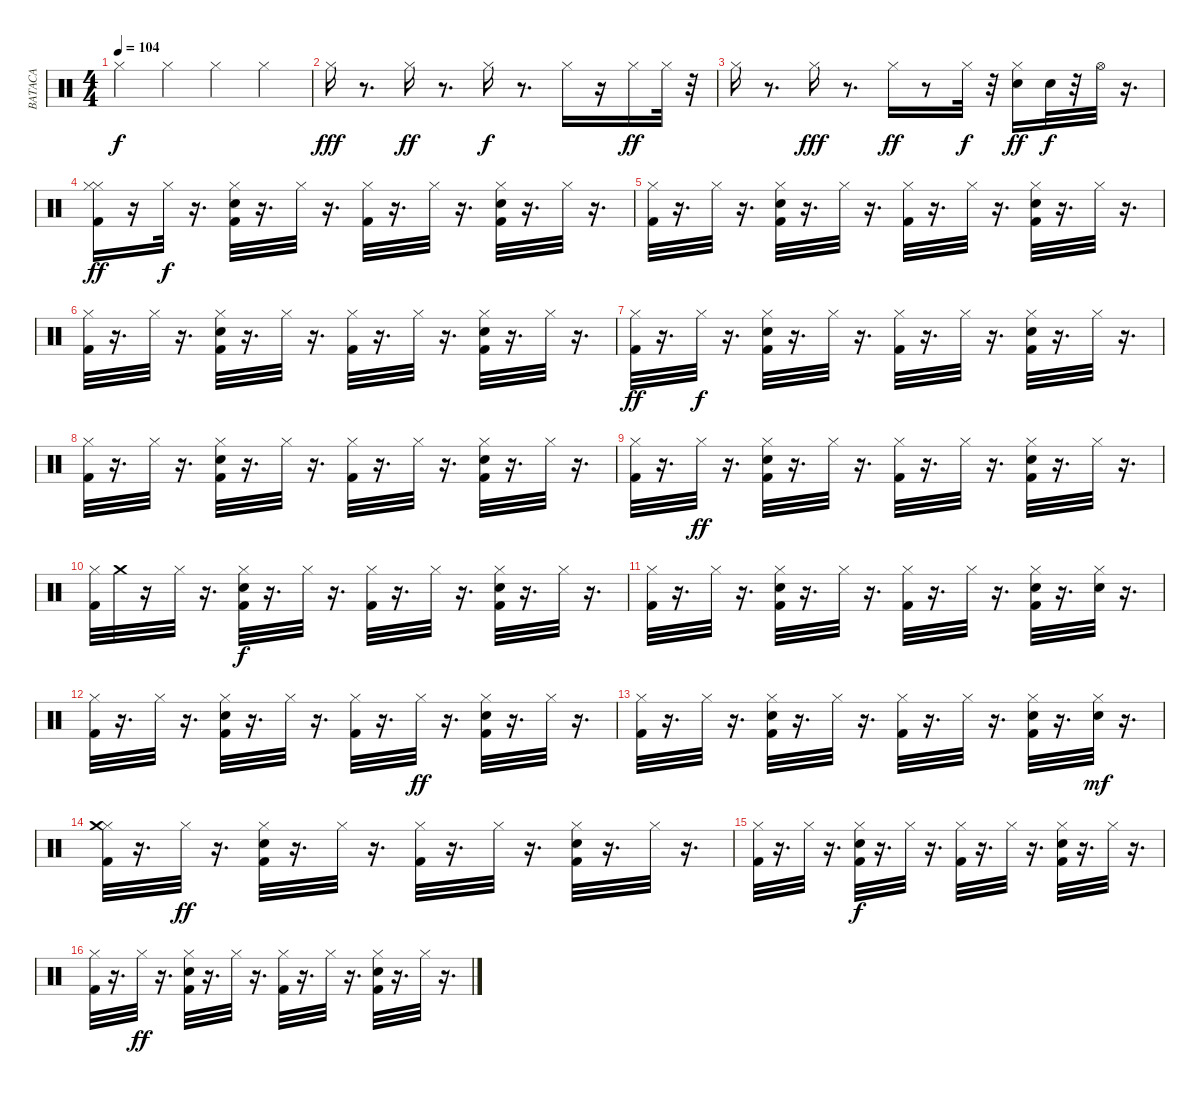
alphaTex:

\track ("BATACA" "BATACA") {instrument percussion}
\staff {score}
\articulation defaults
\ts (4 4)
\tempo 104
\clef neutral
\ks c "Hi-Hat (closed)".4{dy f} "Hi-Hat (closed)".4 "Hi-Hat (closed)".4 "Hi-Hat (closed)".4
|
"Hi-Hat (closed)".16{dy fff} r.8{d} "Hi-Hat (closed)".16{dy ff} r.8{d} "Hi-Hat (closed)".16{dy f} r.8{d} "Hi-Hat (closed)".16 r.16 "Hi-Hat (closed)".16{dy ff} "Hi-Hat (closed)".32 r.32 |
"Hi-Hat (closed)".16 r.8{d} "Hi-Hat (closed)".16{dy fff} r.8{d} "Hi-Hat (closed)".16{dy ff} r.8 "Hi-Hat (closed)".32{dy f} r.32 ("Electric Snare (hit)" "Hi-Hat (closed)").16{dy ff} "Electric Snare (hit)".32{dy f} r.32 "Hi-Hat (open)".32 r.16{d} |
("Hi-Hat (closed)" "Kick (hit) 2" "Hi-Hat (closed)").16{dy ff} r.16 "Hi-Hat (closed)".32{dy f} r.16{d} ("Hi-Hat (closed)" "Kick (hit) 2" "Electric Snare (hit)").32 r.16{d} "Hi-Hat (closed)".32 r.16{d} ("Hi-Hat (closed)" "Kick (hit) 2").32 r.16{d} "Hi-Hat (closed)".32 r.16{d} ("Hi-Hat (closed)" "Kick (hit) 2" "Electric Snare (hit)").32 r.16{d} "Hi-Hat (closed)".32 r.16{d} |
("Hi-Hat (closed)" "Kick (hit) 2").32 r.16{d} "Hi-Hat (closed)".32 r.16{d} ("Hi-Hat (closed)" "Kick (hit) 2" "Electric Snare (hit)").32 r.16{d} "Hi-Hat (closed)".32 r.16{d} ("Hi-Hat (closed)" "Kick (hit) 2").32 r.16{d} "Hi-Hat (closed)".32 r.16{d} ("Hi-Hat (closed)" "Kick (hit) 2" "Electric Snare (hit)").32 r.16{d} "Hi-Hat (closed)".32 r.16{d} |
("Hi-Hat (closed)" "Kick (hit) 2").32 r.16{d} "Hi-Hat (closed)".32 r.16{d} ("Hi-Hat (closed)" "Kick (hit) 2" "Electric Snare (hit)").32 r.16{d} "Hi-Hat (closed)".32 r.16{d} ("Hi-Hat (closed)" "Kick (hit) 2").32 r.16{d} "Hi-Hat (closed)".32 r.16{d} ("Hi-Hat (closed)" "Kick (hit) 2" "Electric Snare (hit)").32 r.16{d} "Hi-Hat (closed)".32 r.16{d} |
("Hi-Hat (closed)" "Kick (hit) 2").32{dy ff} r.16{d} "Hi-Hat (closed)".32{dy f} r.16{d} ("Hi-Hat (closed)" "Kick (hit) 2" "Electric Snare (hit)").32 r.16{d} "Hi-Hat (closed)".32 r.16{d} ("Hi-Hat (closed)" "Kick (hit) 2").32 r.16{d} "Hi-Hat (closed)".32 r.16{d} ("Hi-Hat (closed)" "Kick (hit) 2" "Electric Snare (hit)").32 r.16{d} "Hi-Hat (closed)".32 r.16{d} |
("Hi-Hat (closed)" "Kick (hit) 2").32 r.16{d} "Hi-Hat (closed)".32 r.16{d} ("Hi-Hat (closed)" "Kick (hit) 2" "Electric Snare (hit)").32 r.16{d} "Hi-Hat (closed)".32 r.16{d} ("Hi-Hat (closed)" "Kick (hit) 2").32 r.16{d} "Hi-Hat (closed)".32 r.16{d} ("Hi-Hat (closed)" "Kick (hit) 2" "Electric Snare (hit)").32 r.16{d} "Hi-Hat (closed)".32 r.16{d} |
("Hi-Hat (closed)" "Kick (hit) 2").32 r.16{d} "Hi-Hat (closed)".32{dy ff} r.16{d} ("Hi-Hat (closed)" "Kick (hit) 2" "Electric Snare (hit)").32 r.16{d} "Hi-Hat (closed)".32 r.16{d} ("Hi-Hat (closed)" "Kick (hit) 2").32 r.16{d} "Hi-Hat (closed)".32 r.16{d} ("Hi-Hat (closed)" "Kick (hit) 2" "Electric Snare (hit)").32 r.16{d} "Hi-Hat (closed)".32 r.16{d} |
("Hi-Hat (closed)" "Kick (hit) 2").32 "Crash medium (hit)".32 r.16 "Hi-Hat (closed)".32 r.16{d} ("Hi-Hat (closed)" "Kick (hit) 2" "Electric Snare (hit)").32{dy f} r.16{d} "Hi-Hat (closed)".32 r.16{d} ("Hi-Hat (closed)" "Kick (hit) 2").32 r.16{d} "Hi-Hat (closed)".32 r.16{d} ("Hi-Hat (closed)" "Kick (hit) 2" "Electric Snare (hit)").32 r.16{d} "Hi-Hat (closed)".32 r.16{d} |
("Hi-Hat (closed)" "Kick (hit) 2").32 r.16{d} "Hi-Hat (closed)".32 r.16{d} ("Hi-Hat (closed)" "Kick (hit) 2" "Electric Snare (hit)").32 r.16{d} "Hi-Hat (closed)".32 r.16{d} ("Hi-Hat (closed)" "Kick (hit) 2").32 r.16{d} "Hi-Hat (closed)".32 r.16{d} ("Hi-Hat (closed)" "Kick (hit) 2" "Electric Snare (hit)").32 r.16{d} ("Hi-Hat (closed)" "Electric Snare (hit)").32 r.16{d} |
("Hi-Hat (closed)" "Kick (hit) 2").32 r.16{d} "Hi-Hat (closed)".32 r.16{d} ("Hi-Hat (closed)" "Kick (hit) 2" "Electric Snare (hit)").32 r.16{d} "Hi-Hat (closed)".32 r.16{d} ("Hi-Hat (closed)" "Kick (hit) 2").32 r.16{d} "Hi-Hat (closed)".32{dy ff} r.16{d} ("Hi-Hat (closed)" "Kick (hit) 2" "Electric Snare (hit)").32 r.16{d} "Hi-Hat (closed)".32 r.16{d} |
("Hi-Hat (closed)" "Kick (hit) 2").32 r.16{d} "Hi-Hat (closed)".32 r.16{d} ("Hi-Hat (closed)" "Kick (hit) 2" "Electric Snare (hit)").32 r.16{d} "Hi-Hat (closed)".32 r.16{d} ("Hi-Hat (closed)" "Kick (hit) 2").32 r.16{d} "Hi-Hat (closed)".32 r.16{d} ("Hi-Hat (closed)" "Kick (hit) 2" "Electric Snare (hit)").32 r.16{d} ("Hi-Hat (closed)" "Electric Snare (hit)").32{dy mf} r.16{d} |
("Hi-Hat (closed)" "Kick (hit) 2" "Crash medium (hit)").32 r.16{d} "Hi-Hat (closed)".32{dy ff} r.16{d} ("Hi-Hat (closed)" "Kick (hit) 2" "Electric Snare (hit)").32 r.16{d} "Hi-Hat (closed)".32 r.16{d} ("Hi-Hat (closed)" "Kick (hit) 2").32 r.16{d} "Hi-Hat (closed)".32 r.16{d} ("Hi-Hat (closed)" "Kick (hit) 2" "Electric Snare (hit)").32 r.16{d} "Hi-Hat (closed)".32 r.16{d} |
("Hi-Hat (closed)" "Kick (hit) 2").32 r.16{d} "Hi-Hat (closed)".32 r.16{d} ("Hi-Hat (closed)" "Kick (hit) 2" "Electric Snare (hit)").32{dy f} r.16{d} "Hi-Hat (closed)".32 r.16{d} ("Hi-Hat (closed)" "Kick (hit) 2").32 r.16{d} "Hi-Hat (closed)".32 r.16{d} ("Hi-Hat (closed)" "Kick (hit) 2" "Electric Snare (hit)").32 r.16{d} "Hi-Hat (closed)".32 r.16{d} |
("Hi-Hat (closed)" "Kick (hit) 2").32 r.16{d} "Hi-Hat (closed)".32{dy ff} r.16{d} ("Hi-Hat (closed)" "Kick (hit) 2" "Electric Snare (hit)").32 r.16{d} "Hi-Hat (closed)".32 r.16{d} ("Hi-Hat (closed)" "Kick (hit) 2").32 r.16{d} "Hi-Hat (closed)".32 r.16{d} ("Hi-Hat (closed)" "Kick (hit) 2" "Electric Snare (hit)").32 r.16{d} "Hi-Hat (closed)".32 r.16{d}
